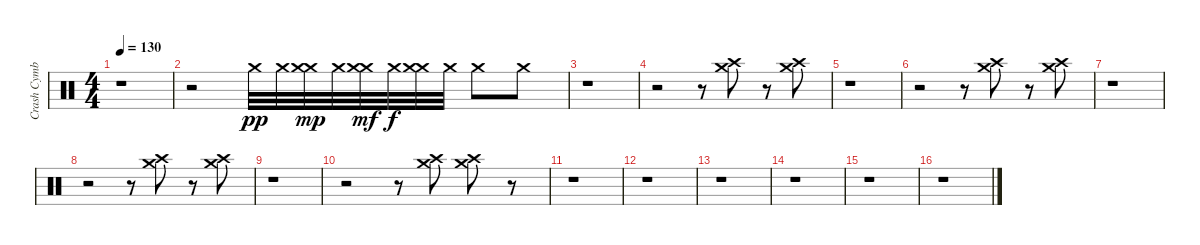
\track ("Crash Cymbal" "Crash Cymb") {instrument percussion}
\staff {score}
\articulation defaults
\ts (4 4)
\tempo 130
\clef neutral
\ks c
r.1{dy pp} |
r.2 "Crash medium (hit)".32 "Crash medium (hit)".32 ("Crash medium (hit)" "Crash medium (hit)").32{dy mp} "Crash medium (hit)".32 ("Crash medium (hit)" "Crash medium (hit)").32{dy mf} "Crash medium (hit)".32{dy f} ("Crash medium (hit)" "Crash medium (hit)").32 "Crash medium (hit)".32 "Crash medium (hit)".8 "Crash medium (hit)".8 |
r.1 |
r.2 r.8 ("Crash high (hit)" "Crash medium (hit)").8 r.8 ("Crash high (hit)" "Crash medium (hit)").8 |
r.1 |
r.2 r.8 ("Crash high (hit)" "Crash medium (hit)").8 r.8 ("Crash high (hit)" "Crash medium (hit)").8 |
r.1 |
r.2 r.8 ("Crash high (hit)" "Crash medium (hit)").8 r.8 ("Crash high (hit)" "Crash medium (hit)").8 |
r.1 |
r.2 r.8 ("Crash high (hit)" "Crash medium (hit)").8 ("Crash high (hit)" "Crash medium (hit)").8 r.8 |
r.1 |
r.1 |
r.1 |
r.1 |
r.1 |
r.1
